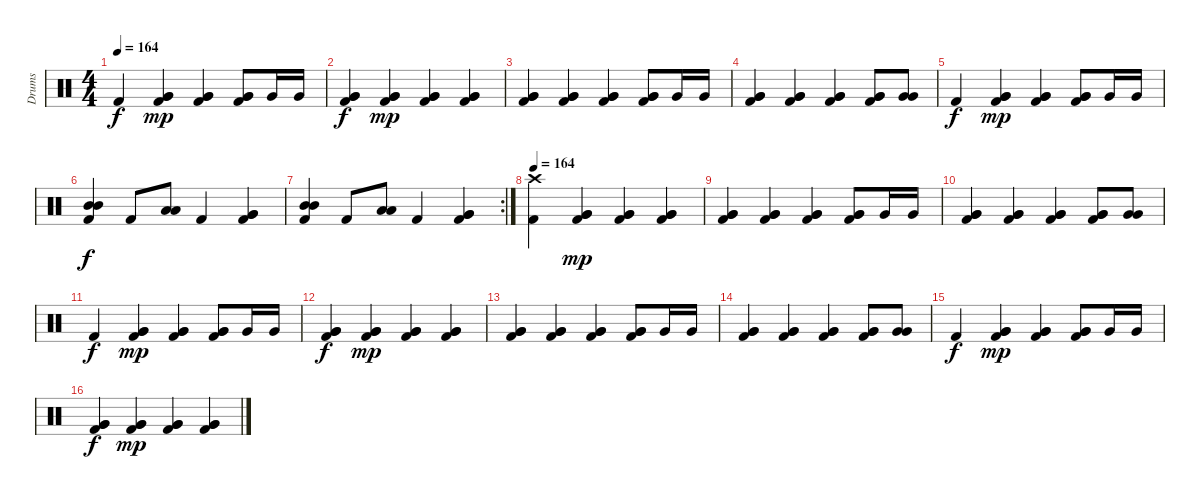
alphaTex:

\track ("Drums" "Drums") {instrument percussion}
\staff {score}
\articulation defaults
\ts (4 4)
\tempo 164
\clef neutral
\ks c "Kick (hit) 2".4{dy f}
("Very Low Tom (hit)" "Very Low Tom (hit)" "Kick (hit) 2").4{dy mp} ("Very Low Tom (hit)" "Very Low Tom (hit)" "Kick (hit) 2").4 ("Very Low Tom (hit)" "Very Low Tom (hit)" "Kick (hit) 2").8 "Very Low Tom (hit)".16 "Very Low Tom (hit)".16 |
("Very Low Tom (hit)" "Very Low Tom (hit)" "Kick (hit) 2").4{dy f} ("Very Low Tom (hit)" "Very Low Tom (hit)" "Kick (hit) 2").4{dy mp} ("Very Low Tom (hit)" "Very Low Tom (hit)" "Kick (hit) 2").4 ("Very Low Tom (hit)" "Very Low Tom (hit)" "Kick (hit) 2").4 |
("Very Low Tom (hit)" "Very Low Tom (hit)" "Kick (hit) 2").4 ("Very Low Tom (hit)" "Very Low Tom (hit)" "Kick (hit) 2").4 ("Very Low Tom (hit)" "Very Low Tom (hit)" "Kick (hit) 2").4 ("Very Low Tom (hit)" "Very Low Tom (hit)" "Kick (hit) 2").8 "Very Low Tom (hit)".16 "Very Low Tom (hit)".16 |
("Very Low Tom (hit)" "Very Low Tom (hit)" "Kick (hit) 2").4 ("Very Low Tom (hit)" "Very Low Tom (hit)" "Kick (hit) 2").4 ("Very Low Tom (hit)" "Very Low Tom (hit)" "Kick (hit) 2").4 ("Very Low Tom (hit)" "Very Low Tom (hit)" "Kick (hit) 2").8 ("Very Low Tom (hit)" "Very Low Tom (hit)").8 |
"Kick (hit) 2".4{dy f} ("Very Low Tom (hit)" "Very Low Tom (hit)" "Kick (hit) 2").4{dy mp} ("Very Low Tom (hit)" "Very Low Tom (hit)" "Kick (hit) 2").4 ("Very Low Tom (hit)" "Very Low Tom (hit)" "Kick (hit) 2").8 "Very Low Tom (hit)".16 "Very Low Tom (hit)".16 |
("Mid Tom (hit)" "Mid Tom (hit)" "Kick (hit) 2").4{dy f} "Kick (hit) 2".8 ("Low Tom (hit)" "Low Tom (hit)").8 "Kick (hit) 2".4 ("Very Low Tom (hit)" "Very Low Tom (hit)" "Kick (hit) 2").4 |
\rc 2
("Mid Tom (hit)" "Mid Tom (hit)" "Kick (hit) 2").4 "Kick (hit) 2".8 ("Low Tom (hit)" "Low Tom (hit)").8 "Kick (hit) 2".4 ("Very Low Tom (hit)" "Very Low Tom (hit)" "Kick (hit) 2").4 |
\tempo 164
("Crash high (hit)" "Kick (hit) 2").4 ("Very Low Tom (hit)" "Very Low Tom (hit)" "Kick (hit) 2").4{dy mp} ("Very Low Tom (hit)" "Very Low Tom (hit)" "Kick (hit) 2").4 ("Very Low Tom (hit)" "Very Low Tom (hit)" "Kick (hit) 2").4 |
("Very Low Tom (hit)" "Very Low Tom (hit)" "Kick (hit) 2").4 ("Very Low Tom (hit)" "Very Low Tom (hit)" "Kick (hit) 2").4 ("Very Low Tom (hit)" "Very Low Tom (hit)" "Kick (hit) 2").4 ("Very Low Tom (hit)" "Very Low Tom (hit)" "Kick (hit) 2").8 "Very Low Tom (hit)".16 "Very Low Tom (hit)".16 |
("Very Low Tom (hit)" "Very Low Tom (hit)" "Kick (hit) 2").4 ("Very Low Tom (hit)" "Very Low Tom (hit)" "Kick (hit) 2").4 ("Very Low Tom (hit)" "Very Low Tom (hit)" "Kick (hit) 2").4 ("Very Low Tom (hit)" "Very Low Tom (hit)" "Kick (hit) 2").8 ("Very Low Tom (hit)" "Very Low Tom (hit)").8 |
"Kick (hit) 2".4{dy f} ("Very Low Tom (hit)" "Very Low Tom (hit)" "Kick (hit) 2").4{dy mp} ("Very Low Tom (hit)" "Very Low Tom (hit)" "Kick (hit) 2").4 ("Very Low Tom (hit)" "Very Low Tom (hit)" "Kick (hit) 2").8 "Very Low Tom (hit)".16 "Very Low Tom (hit)".16 |
("Very Low Tom (hit)" "Very Low Tom (hit)" "Kick (hit) 2").4{dy f} ("Very Low Tom (hit)" "Very Low Tom (hit)" "Kick (hit) 2").4{dy mp} ("Very Low Tom (hit)" "Very Low Tom (hit)" "Kick (hit) 2").4 ("Very Low Tom (hit)" "Very Low Tom (hit)" "Kick (hit) 2").4 |
("Very Low Tom (hit)" "Very Low Tom (hit)" "Kick (hit) 2").4 ("Very Low Tom (hit)" "Very Low Tom (hit)" "Kick (hit) 2").4 ("Very Low Tom (hit)" "Very Low Tom (hit)" "Kick (hit) 2").4 ("Very Low Tom (hit)" "Very Low Tom (hit)" "Kick (hit) 2").8 "Very Low Tom (hit)".16 "Very Low Tom (hit)".16 |
("Very Low Tom (hit)" "Very Low Tom (hit)" "Kick (hit) 2").4 ("Very Low Tom (hit)" "Very Low Tom (hit)" "Kick (hit) 2").4 ("Very Low Tom (hit)" "Very Low Tom (hit)" "Kick (hit) 2").4 ("Very Low Tom (hit)" "Very Low Tom (hit)" "Kick (hit) 2").8 ("Very Low Tom (hit)" "Very Low Tom (hit)").8 |
"Kick (hit) 2".4{dy f} ("Very Low Tom (hit)" "Very Low Tom (hit)" "Kick (hit) 2").4{dy mp} ("Very Low Tom (hit)" "Very Low Tom (hit)" "Kick (hit) 2").4 ("Very Low Tom (hit)" "Very Low Tom (hit)" "Kick (hit) 2").8 "Very Low Tom (hit)".16 "Very Low Tom (hit)".16 |
("Very Low Tom (hit)" "Very Low Tom (hit)" "Kick (hit) 2").4{dy f} ("Very Low Tom (hit)" "Very Low Tom (hit)" "Kick (hit) 2").4{dy mp} ("Very Low Tom (hit)" "Very Low Tom (hit)" "Kick (hit) 2").4 ("Very Low Tom (hit)" "Very Low Tom (hit)" "Kick (hit) 2").4
